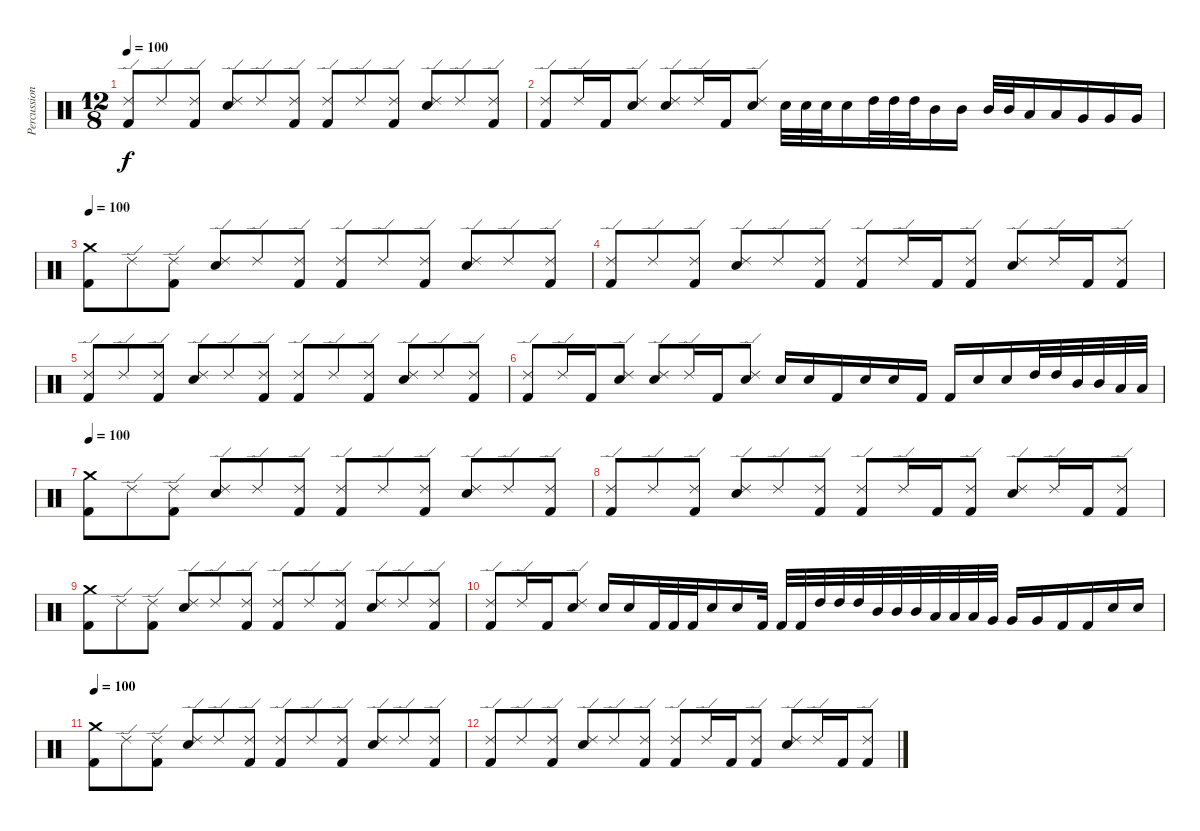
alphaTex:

\track ("Percussions" "Percussion") {instrument percussion}
\staff {score}
\articulation defaults
\ts (12 8)
\tempo 100
\clef neutral
\ks c
("Ride (edge) 2" "Kick (hit) 2").8{dy f} "Ride (edge) 2".8 ("Ride (edge) 2" "Kick (hit) 2").8 ("Ride (edge) 2" "Electric Snare (hit)").8 "Ride (edge) 2".8 ("Ride (edge) 2" "Kick (hit) 2").8 ("Ride (edge) 2" "Kick (hit) 2").8 "Ride (edge) 2".8 ("Ride (edge) 2" "Kick (hit) 2").8 ("Ride (edge) 2" "Electric Snare (hit)").8 "Ride (edge) 2".8 ("Ride (edge) 2" "Kick (hit) 2").8 |
("Ride (edge) 2" "Kick (hit) 2").8 "Ride (edge) 2".16 "Kick (hit) 2".16 ("Ride (edge) 2" "Electric Snare (hit)").8 ("Ride (edge) 2" "Electric Snare (hit)").8 "Ride (edge) 2".16 "Kick (hit) 2".16 ("Ride (edge) 2" "Electric Snare (hit)").8 "Electric Snare (hit)".32 "Electric Snare (hit)".32 "Electric Snare (hit)".32 "Electric Snare (hit)".16 "High Tom (hit)".32 "High Tom (hit)".32 "High Tom (hit)".32 "Mid Tom (hit)".16 "Mid Tom (hit)".16 "Mid Tom (hit)".32 "Mid Tom (hit)".32 "Low Tom (hit)".16 "Low Tom (hit)".16 "Very Low Tom (hit)".16 "Very Low Tom (hit)".16 "Very Low Tom (hit)".16 |
\tempo 100
("Crash medium (hit)" "Kick (hit) 2").8 "Ride (edge) 2".8 ("Ride (edge) 2" "Kick (hit) 2").8 ("Ride (edge) 2" "Electric Snare (hit)").8 "Ride (edge) 2".8 ("Ride (edge) 2" "Kick (hit) 2").8 ("Ride (edge) 2" "Kick (hit) 2").8 "Ride (edge) 2".8 ("Ride (edge) 2" "Kick (hit) 2").8 ("Ride (edge) 2" "Electric Snare (hit)").8 "Ride (edge) 2".8 ("Ride (edge) 2" "Kick (hit) 2").8 |
("Ride (edge) 2" "Kick (hit) 2").8 "Ride (edge) 2".8 ("Ride (edge) 2" "Kick (hit) 2").8 ("Ride (edge) 2" "Electric Snare (hit)").8 "Ride (edge) 2".8 ("Ride (edge) 2" "Kick (hit) 2").8 ("Ride (edge) 2" "Kick (hit) 2").8 "Ride (edge) 2".16 "Kick (hit) 2".16 ("Ride (edge) 2" "Kick (hit) 2").8 ("Ride (edge) 2" "Electric Snare (hit)").8 "Ride (edge) 2".16 "Kick (hit) 2".16 ("Ride (edge) 2" "Kick (hit) 2").8 |
("Ride (edge) 2" "Kick (hit) 2").8 "Ride (edge) 2".8 ("Ride (edge) 2" "Kick (hit) 2").8 ("Ride (edge) 2" "Electric Snare (hit)").8 "Ride (edge) 2".8 ("Ride (edge) 2" "Kick (hit) 2").8 ("Ride (edge) 2" "Kick (hit) 2").8 "Ride (edge) 2".8 ("Ride (edge) 2" "Kick (hit) 2").8 ("Ride (edge) 2" "Electric Snare (hit)").8 "Ride (edge) 2".8 ("Ride (edge) 2" "Kick (hit) 2").8 |
("Ride (edge) 2" "Kick (hit) 2").8 "Ride (edge) 2".16 "Kick (hit) 2".16 ("Ride (edge) 2" "Electric Snare (hit)").8 ("Ride (edge) 2" "Electric Snare (hit)").8 "Ride (edge) 2".16 "Kick (hit) 2".16 ("Ride (edge) 2" "Electric Snare (hit)").8 "Electric Snare (hit)".16 "Electric Snare (hit)".16 "Kick (hit) 2".16 "Electric Snare (hit)".16 "Electric Snare (hit)".16 "Kick (hit) 2".16 "Kick (hit) 2".16 "Electric Snare (hit)".16 "Electric Snare (hit)".16 "High Tom (hit)".32 "High Tom (hit)".32 "Mid Tom (hit)".32 "Mid Tom (hit)".32 "Low Tom (hit)".32 "Low Tom (hit)".32 |
\tempo 100
("Crash medium (hit)" "Kick (hit) 2").8 "Ride (edge) 2".8 ("Ride (edge) 2" "Kick (hit) 2").8 ("Ride (edge) 2" "Electric Snare (hit)").8 "Ride (edge) 2".8 ("Ride (edge) 2" "Kick (hit) 2").8 ("Ride (edge) 2" "Kick (hit) 2").8 "Ride (edge) 2".8 ("Ride (edge) 2" "Kick (hit) 2").8 ("Ride (edge) 2" "Electric Snare (hit)").8 "Ride (edge) 2".8 ("Ride (edge) 2" "Kick (hit) 2").8 |
("Ride (edge) 2" "Kick (hit) 2").8 "Ride (edge) 2".8 ("Ride (edge) 2" "Kick (hit) 2").8 ("Ride (edge) 2" "Electric Snare (hit)").8 "Ride (edge) 2".8 ("Ride (edge) 2" "Kick (hit) 2").8 ("Ride (edge) 2" "Kick (hit) 2").8 "Ride (edge) 2".16 "Kick (hit) 2".16 ("Ride (edge) 2" "Kick (hit) 2").8 ("Ride (edge) 2" "Electric Snare (hit)").8 "Ride (edge) 2".16 "Kick (hit) 2".16 ("Ride (edge) 2" "Kick (hit) 2").8 |
("Crash medium (hit)" "Kick (hit) 2").8 "Ride (edge) 2".8 ("Ride (edge) 2" "Kick (hit) 2").8 ("Ride (edge) 2" "Electric Snare (hit)").8 "Ride (edge) 2".8 ("Ride (edge) 2" "Kick (hit) 2").8 ("Ride (edge) 2" "Kick (hit) 2").8 "Ride (edge) 2".8 ("Ride (edge) 2" "Kick (hit) 2").8 ("Ride (edge) 2" "Electric Snare (hit)").8 "Ride (edge) 2".8 ("Ride (edge) 2" "Kick (hit) 2").8 |
("Ride (edge) 2" "Kick (hit) 2").8 "Ride (edge) 2".16 "Kick (hit) 2".16 ("Ride (edge) 2" "Electric Snare (hit)").8 "Electric Snare (hit)".16 "Electric Snare (hit)".16 "Kick (hit) 2".32 "Kick (hit) 2".32 "Kick (hit) 2".32 "Electric Snare (hit)".16 "Electric Snare (hit)".16 "Kick (hit) 2".32 "Kick (hit) 2".32 "Kick (hit) 2".32 "High Tom (hit)".32 "High Tom (hit)".32 "High Tom (hit)".32 "Mid Tom (hit)".32 "Mid Tom (hit)".32 "Mid Tom (hit)".32 "Low Tom (hit)".32 "Low Tom (hit)".32 "Low Tom (hit)".32 "Very Low Tom (hit)".32 "Very Low Tom (hit)".16 "Very Low Tom (hit)".16 "Kick (hit) 2".16 "Kick (hit) 2".16 "Electric Snare (hit)".16 "Electric Snare (hit)".16 |
\tempo 100
("Crash medium (hit)" "Kick (hit) 2").8 "Ride (edge) 2".8 ("Ride (edge) 2" "Kick (hit) 2").8 ("Ride (edge) 2" "Electric Snare (hit)").8 "Ride (edge) 2".8 ("Ride (edge) 2" "Kick (hit) 2").8 ("Ride (edge) 2" "Kick (hit) 2").8 "Ride (edge) 2".8 ("Ride (edge) 2" "Kick (hit) 2").8 ("Ride (edge) 2" "Electric Snare (hit)").8 "Ride (edge) 2".8 ("Ride (edge) 2" "Kick (hit) 2").8 |
("Ride (edge) 2" "Kick (hit) 2").8 "Ride (edge) 2".8 ("Ride (edge) 2" "Kick (hit) 2").8 ("Ride (edge) 2" "Electric Snare (hit)").8 "Ride (edge) 2".8 ("Ride (edge) 2" "Kick (hit) 2").8 ("Ride (edge) 2" "Kick (hit) 2").8 "Ride (edge) 2".16 "Kick (hit) 2".16 ("Ride (edge) 2" "Kick (hit) 2").8 ("Ride (edge) 2" "Electric Snare (hit)").8 "Ride (edge) 2".16 "Kick (hit) 2".16 ("Ride (edge) 2" "Kick (hit) 2").8
